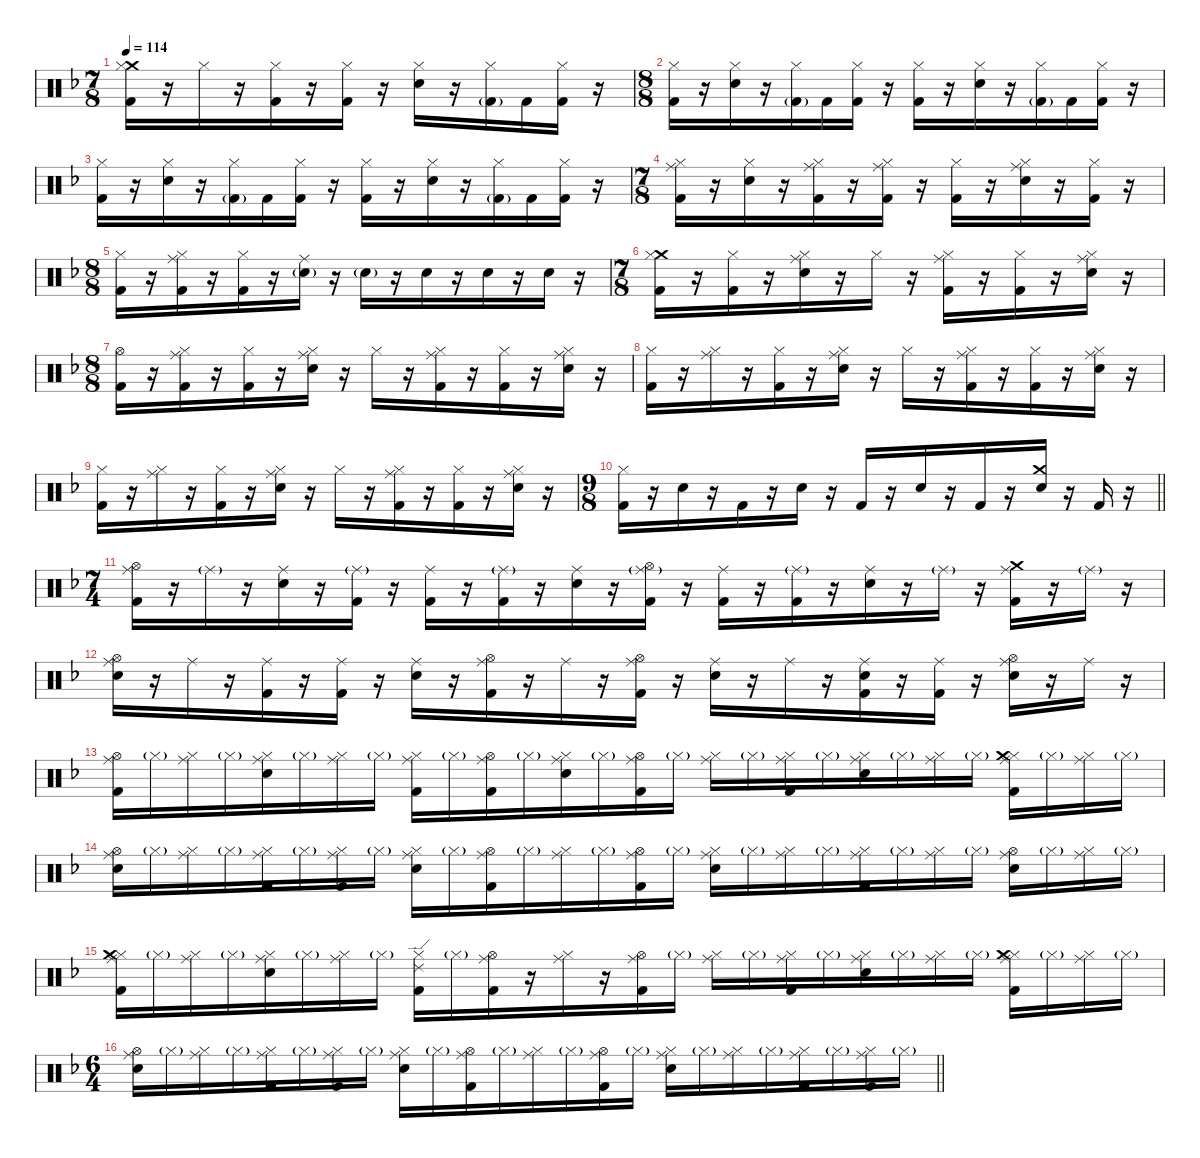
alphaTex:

\defaultSystemsLayout 4
\hideDynamics
\bracketExtendMode nobrackets
\singleTrackTrackNamePolicy hidden
\multiTrackTrackNamePolicy hidden
\firstSystemTrackNameMode fullname
\otherSystemsTrackNameOrientation horizontal
\track ("Drums" "drm.") {instrument percussion}
\staff {score}
\articulation defaults
\ts (7 8)
\beaming (8 4 4 4 4)
\tempo 114
\clef neutral
\ks dminor
("Crash medium (hit)"{acc forcenatural} "Hi-Hat (closed)"{acc forcenatural} "Kick (hit) 2"{acc forcenatural}).16{dy f beam Down} r.16{beam Down} "Hi-Hat (closed)"{acc forcenatural}.16{beam Down} r.16{beam Down} ("Hi-Hat (closed)"{acc forcenatural} "Kick (hit) 2"{acc forcenatural}).16{beam Down} r.16{beam Down} ("Hi-Hat (closed)"{acc forcenatural} "Kick (hit) 2"{acc forcenatural}).16{beam Down} r.16{beam Down} ("Hi-Hat (closed)"{acc forcenatural} "Snare (hit) 2"{acc forcenatural}).16{beam Down} r.16{beam Down} ("Hi-Hat (closed)"{acc forcenatural} "Kick (hit) 2"{g acc forcenatural}).16{beam Down} "Kick (hit) 2"{acc forcenatural}.16{beam Down} ("Hi-Hat (closed)"{acc forcenatural} "Kick (hit) 2"{acc forcenatural}).16{beam Down} r.16{beam Down} |
\ts (8 8)
\beaming (8 4 4 4 4)
("Hi-Hat (closed)"{acc forcenatural} "Kick (hit) 2"{acc forcenatural}).16{beam Down} r.16{beam Down} ("Hi-Hat (closed)"{acc forcenatural} "Snare (hit) 2"{acc forcenatural}).16{beam Down} r.16{beam Down} ("Hi-Hat (closed)"{acc forcenatural} "Kick (hit) 2"{g acc forcenatural}).16{beam Down} "Kick (hit) 2"{acc forcenatural}.16{beam Down} ("Hi-Hat (closed)"{acc forcenatural} "Kick (hit) 2"{acc forcenatural}).16{beam Down} r.16{beam Down} ("Hi-Hat (closed)"{acc forcenatural} "Kick (hit) 2"{acc forcenatural}).16{beam Down} r.16{beam Down} ("Hi-Hat (closed)"{acc forcenatural} "Snare (hit) 2"{acc forcenatural}).16{beam Down} r.16{beam Down} ("Hi-Hat (closed)"{acc forcenatural} "Kick (hit) 2"{g acc forcenatural}).16{beam Down} "Kick (hit) 2"{acc forcenatural}.16{beam Down} ("Hi-Hat (closed)"{acc forcenatural} "Kick (hit) 2"{acc forcenatural}).16{beam Down} r.16{beam Down} |
("Hi-Hat (closed)"{acc forcenatural} "Kick (hit) 2"{acc forcenatural}).16{beam Down} r.16{beam Down} ("Hi-Hat (closed)"{acc forcenatural} "Snare (hit) 2"{acc forcenatural}).16{beam Down} r.16{beam Down} ("Hi-Hat (closed)"{acc forcenatural} "Kick (hit) 2"{g acc forcenatural}).16{beam Down} "Kick (hit) 2"{acc forcenatural}.16{beam Down} ("Hi-Hat (closed)"{acc forcenatural} "Kick (hit) 2"{acc forcenatural}).16{beam Down} r.16{beam Down} ("Hi-Hat (closed)"{acc forcenatural} "Kick (hit) 2"{acc forcenatural}).16{beam Down} r.16{beam Down} ("Hi-Hat (closed)"{acc forcenatural} "Snare (hit) 2"{acc forcenatural}).16{beam Down} r.16{beam Down} ("Hi-Hat (closed)"{acc forcenatural} "Kick (hit) 2"{g acc forcenatural}).16{beam Down} "Kick (hit) 2"{acc forcenatural}.16{beam Down} ("Hi-Hat (closed)"{acc forcenatural} "Kick (hit) 2"{acc forcenatural}).16{beam Down} r.16{beam Down} |
\ts (7 8)
\beaming (8 4 4 4 4)
("Ride (middle)"{acc forcenatural} "Hi-Hat (closed)"{acc forcenatural} "Kick (hit) 2"{acc forcenatural}).16{beam Down} r.16{beam Down} ("Hi-Hat (closed)"{acc forcenatural} "Snare (hit) 2"{acc forcenatural}).16{beam Down} r.16{beam Down} ("Ride (middle)"{acc forcenatural} "Hi-Hat (closed)"{acc forcenatural} "Kick (hit) 2"{acc forcenatural}).16{beam Down} r.16{beam Down} ("Ride (middle)"{acc forcenatural} "Hi-Hat (closed)"{acc forcenatural} "Kick (hit) 2"{acc forcenatural}).16{beam Down} r.16{beam Down} ("Hi-Hat (closed)"{acc forcenatural} "Kick (hit) 2"{acc forcenatural}).16{beam Down} r.16{beam Down} ("Ride (middle)"{acc forcenatural} "Hi-Hat (closed)"{acc forcenatural} "Snare (hit) 2"{acc forcenatural}).16{beam Down} r.16{beam Down} ("Hi-Hat (closed)"{acc forcenatural} "Kick (hit) 2"{acc forcenatural}).16{beam Down} r.16{beam Down} |
\ts (8 8)
\beaming (8 4 4 4 4)
("Hi-Hat (closed)"{acc forcenatural} "Kick (hit) 2"{acc forcenatural}).16{beam Down} r.16{beam Down} ("Ride (middle)"{acc forcenatural} "Hi-Hat (closed)"{acc forcenatural} "Kick (hit) 2"{acc forcenatural}).16{beam Down} r.16{beam Down} ("Hi-Hat (closed)"{acc forcenatural} "Kick (hit) 2"{acc forcenatural}).16{beam Down} r.16{beam Down} ("Ride (middle)"{acc forcenatural} "Snare (hit) 2"{g acc forcenatural}).16{beam Down} r.16{beam Down} "Snare (hit) 2"{g acc forcenatural}.16{dy mf beam Down} r.16{beam Down} "Snare (hit) 2"{acc forcenatural}.16{dy f beam Down} r.16{beam Down} "Snare (hit) 2"{acc forcenatural}.16{beam Down} r.16{beam Down} "Snare (hit) 2"{acc forcenatural}.16{beam Down} r.16{beam Down} |
\ts (7 8)
\beaming (8 4 4 4 4)
("Crash medium (hit)"{acc forcenatural} "Hi-Hat (closed)"{acc forcenatural} "Kick (hit) 2"{acc forcenatural}).16{beam Down} r.16{beam Down} ("Hi-Hat (closed)"{acc forcenatural} "Kick (hit) 2"{acc forcenatural}).16{beam Down} r.16{beam Down} ("Ride (middle)"{acc forcenatural} "Hi-Hat (closed)"{acc forcenatural} "Snare (hit) 2"{acc forcenatural}).16{beam Down} r.16{beam Down} "Hi-Hat (closed)"{acc forcenatural}.16{beam Down} r.16{beam Down} ("Ride (middle)"{acc forcenatural} "Hi-Hat (closed)"{acc forcenatural} "Kick (hit) 2"{acc forcenatural}).16{beam Down} r.16{beam Down} ("Hi-Hat (closed)"{acc forcenatural} "Kick (hit) 2"{acc forcenatural}).16{beam Down} r.16{beam Down} ("Ride (middle)"{acc forcenatural} "Hi-Hat (closed)"{acc forcenatural} "Snare (hit) 2"{acc forcenatural}).16{beam Down} r.16{beam Down} |
\ts (8 8)
\beaming (8 4 4 4 4)
("Hi-Hat (open)"{acc forcenatural} "Kick (hit) 2"{acc forcenatural}).16{beam Down} r.16{beam Down} ("Ride (middle)"{acc forcenatural} "Hi-Hat (closed)"{acc forcenatural} "Kick (hit) 2"{acc forcenatural}).16{beam Down} r.16{beam Down} ("Hi-Hat (closed)"{acc forcenatural} "Kick (hit) 2"{acc forcenatural}).16{beam Down} r.16{beam Down} ("Ride (middle)"{acc forcenatural} "Hi-Hat (closed)"{acc forcenatural} "Snare (hit) 2"{acc forcenatural}).16{beam Down} r.16{beam Down} "Hi-Hat (closed)"{acc forcenatural}.16{beam Down} r.16{beam Down} ("Ride (middle)"{acc forcenatural} "Hi-Hat (closed)"{acc forcenatural} "Kick (hit) 2"{acc forcenatural}).16{beam Down} r.16{beam Down} ("Hi-Hat (closed)"{acc forcenatural} "Kick (hit) 2"{acc forcenatural}).16{beam Down} r.16{beam Down} ("Ride (middle)"{acc forcenatural} "Hi-Hat (closed)"{acc forcenatural} "Snare (hit) 2"{acc forcenatural}).16{beam Down} r.16{beam Down} |
("Hi-Hat (closed)"{acc forcenatural} "Kick (hit) 2"{acc forcenatural}).16{beam Down} r.16{beam Down} ("Ride (middle)"{acc forcenatural} "Hi-Hat (closed)"{acc forcenatural}).16{beam Down} r.16{beam Down} ("Hi-Hat (closed)"{acc forcenatural} "Kick (hit) 2"{acc forcenatural}).16{beam Down} r.16{beam Down} ("Ride (middle)"{acc forcenatural} "Hi-Hat (closed)"{acc forcenatural} "Snare (hit) 2"{acc forcenatural}).16{beam Down} r.16{beam Down} "Hi-Hat (closed)"{acc forcenatural}.16{beam Down} r.16{beam Down} ("Ride (middle)"{acc forcenatural} "Hi-Hat (closed)"{acc forcenatural} "Kick (hit) 2"{acc forcenatural}).16{beam Down} r.16{beam Down} ("Hi-Hat (closed)"{acc forcenatural} "Kick (hit) 2"{acc forcenatural}).16{beam Down} r.16{beam Down} ("Ride (middle)"{acc forcenatural} "Hi-Hat (closed)"{acc forcenatural} "Snare (hit) 2"{acc forcenatural}).16{beam Down} r.16{beam Down} |
("Hi-Hat (closed)"{acc forcenatural} "Kick (hit) 2"{acc forcenatural}).16{beam Down} r.16{beam Down} ("Ride (middle)"{acc forcenatural} "Hi-Hat (closed)"{acc forcenatural}).16{beam Down} r.16{beam Down} ("Hi-Hat (closed)"{acc forcenatural} "Kick (hit) 2"{acc forcenatural}).16{beam Down} r.16{beam Down} ("Ride (middle)"{acc forcenatural} "Hi-Hat (closed)"{acc forcenatural} "Snare (hit) 2"{acc forcenatural}).16{beam Down} r.16{beam Down} "Hi-Hat (closed)"{acc forcenatural}.16{beam Down} r.16{beam Down} ("Ride (middle)"{acc forcenatural} "Hi-Hat (closed)"{acc forcenatural} "Kick (hit) 2"{acc forcenatural}).16{beam Down} r.16{beam Down} ("Hi-Hat (closed)"{acc forcenatural} "Kick (hit) 2"{acc forcenatural}).16{beam Down} r.16{beam Down} ("Ride (middle)"{acc forcenatural} "Hi-Hat (closed)"{acc forcenatural} "Snare (hit) 2"{acc forcenatural}).16{beam Down} r.16{beam Down} |
\ts (9 8)
\beaming (8 4 4 4 4)
\barLineRight lightlight
("Hi-Hat (closed)"{acc forcenatural} "Kick (hit) 2"{acc forcenatural}).16{beam Down} r.16{beam Down} "Snare (hit) 2"{acc forcenatural}.16{beam Down} r.16{beam Down} "Kick (hit) 2"{acc forcenatural}.16{beam Down} r.16{beam Down} "Snare (hit) 2"{acc forcenatural}.16{beam Down} r.16{beam Down} "Kick (hit) 2"{acc forcenatural}.16{beam Up} r.16{beam Up} "Snare (hit) 2"{acc forcenatural}.16{beam Up} r.16{beam Up} "Kick (hit) 2"{acc forcenatural}.16{beam Up} r.16{beam Up} ("Crash medium (hit)"{acc forcenatural} "Snare (hit) 2"{acc forcenatural}).16{beam Up} r.16{beam Up} "Kick (hit) 2"{acc forcenatural}.16{beam Up} r.16{beam Up} |
\ts (7 4)
\beaming (8 4 4 4 4)
("Ride (middle)"{acc forcenatural} "Hi-Hat (open)"{acc forcenatural} "Kick (hit) 2"{acc forcenatural}).16{beam Down} r.16{beam Down} "Ride (middle)"{g acc forcenatural}.16{dy mf beam Down} r.16{beam Down} ("Ride (middle)"{acc forcenatural} "Snare (hit) 2"{acc forcenatural}).16{dy f beam Down} r.16{beam Down} ("Ride (middle)"{g acc forcenatural} "Kick (hit) 2"{acc forcenatural}).16{beam Down} r.16{beam Down} ("Ride (middle)"{acc forcenatural} "Kick (hit) 2"{acc forcenatural}).16{beam Down} r.16{beam Down} ("Ride (middle)"{g acc forcenatural} "Kick (hit) 2"{acc forcenatural}).16{beam Down} r.16{beam Down} ("Ride (middle)"{acc forcenatural} "Snare (hit) 2"{acc forcenatural}).16{beam Down} r.16{beam Down} ("Ride (middle)"{g acc forcenatural} "Hi-Hat (open)"{acc forcenatural} "Kick (hit) 2"{acc forcenatural}).16{beam Down} r.16{beam Down} ("Ride (middle)"{acc forcenatural} "Kick (hit) 2"{acc forcenatural}).16{beam Down} r.16{beam Down} ("Ride (middle)"{g acc forcenatural} "Kick (hit) 2"{acc forcenatural}).16{beam Down} r.16{beam Down} ("Ride (middle)"{acc forcenatural} "Snare (hit) 2"{acc forcenatural}).16{beam Down} r.16{beam Down} "Ride (middle)"{g acc forcenatural}.16{dy mf beam Down} r.16{beam Down} ("Ride (middle)"{acc forcenatural} "Crash medium (hit)"{acc forcenatural} "Kick (hit) 2"{acc forcenatural}).16{dy f beam Down} r.16{beam Down} "Ride (middle)"{g acc forcenatural}.16{dy mf beam Down} r.16{beam Down} |
("Ride (middle)"{acc forcenatural} "Hi-Hat (open)"{acc forcenatural} "Snare (hit) 2"{acc forcenatural}).16{dy f beam Down} r.16{beam Down} "Ride (middle)"{acc forcenatural}.16{beam Down} r.16{beam Down} ("Ride (middle)"{acc forcenatural} "Kick (hit) 2"{acc forcenatural}).16{beam Down} r.16{beam Down} ("Ride (middle)"{acc forcenatural} "Kick (hit) 2"{acc forcenatural}).16{beam Down} r.16{beam Down} ("Ride (middle)"{acc forcenatural} "Snare (hit) 2"{acc forcenatural}).16{beam Down} r.16{beam Down} ("Ride (middle)"{acc forcenatural} "Hi-Hat (open)"{acc forcenatural} "Kick (hit) 2"{acc forcenatural}).16{beam Down} r.16{beam Down} "Ride (middle)"{acc forcenatural}.16{beam Down} r.16{beam Down} ("Ride (middle)"{acc forcenatural} "Hi-Hat (open)"{acc forcenatural} "Kick (hit) 2"{acc forcenatural}).16{beam Down} r.16{beam Down} ("Ride (middle)"{acc forcenatural} "Snare (hit) 2"{acc forcenatural}).16{beam Down} r.16{beam Down} "Ride (middle)"{acc forcenatural}.16{beam Down} r.16{beam Down} ("Ride (middle)"{acc forcenatural} "Snare (hit) 2"{acc forcenatural} "Kick (hit) 2"{acc forcenatural}).16{beam Down} r.16{beam Down} ("Ride (middle)"{acc forcenatural} "Kick (hit) 2"{acc forcenatural}).16{beam Down} r.16{beam Down} ("Ride (middle)"{acc forcenatural} "Hi-Hat (open)"{acc forcenatural} "Snare (hit) 2"{acc forcenatural}).16{beam Down} r.16{beam Down} "Ride (middle)"{acc forcenatural}.16{beam Down} r.16{beam Down} |
("Ride (middle)"{acc forcenatural} "Hi-Hat (open)"{acc forcenatural} "Kick (hit) 2"{acc forcenatural}).16{beam Down} "Hi-Hat (closed)"{g acc forcenatural}.16{dy mf beam Down} ("Ride (middle)"{acc forcenatural} "Hi-Hat (closed)"{acc forcenatural}).16{dy f beam Down} "Hi-Hat (closed)"{g acc forcenatural}.16{dy mf beam Down} ("Ride (middle)"{acc forcenatural} "Hi-Hat (closed)"{acc forcenatural} "Snare (hit) 2"{acc forcenatural}).16{dy f beam Down} "Hi-Hat (closed)"{g acc forcenatural}.16{dy mf beam Down} ("Ride (middle)"{acc forcenatural} "Hi-Hat (closed)"{acc forcenatural}).16{dy f beam Down} "Hi-Hat (closed)"{g acc forcenatural}.16{dy mf beam Down} ("Ride (middle)"{acc forcenatural} "Hi-Hat (closed)"{acc forcenatural} "Kick (hit) 2"{acc forcenatural}).16{dy f beam Down} "Hi-Hat (closed)"{g acc forcenatural}.16{dy mf beam Down} ("Ride (middle)"{acc forcenatural} "Hi-Hat (open)"{acc forcenatural} "Kick (hit) 2"{acc forcenatural}).16{dy f beam Down} "Hi-Hat (closed)"{g acc forcenatural}.16{dy mf beam Down} ("Ride (middle)"{acc forcenatural} "Hi-Hat (closed)"{acc forcenatural} "Snare (hit) 2"{acc forcenatural}).16{dy f beam Down} "Hi-Hat (closed)"{g acc forcenatural}.16{dy mf beam Down} ("Ride (middle)"{acc forcenatural} "Hi-Hat (open)"{acc forcenatural} "Kick (hit) 2"{acc forcenatural}).16{dy f beam Down} "Hi-Hat (closed)"{g acc forcenatural}.16{dy mf beam Down} ("Ride (middle)"{acc forcenatural} "Hi-Hat (closed)"{acc forcenatural}).16{dy f beam Down} "Hi-Hat (closed)"{g acc forcenatural}.16{dy mf beam Down} ("Ride (middle)"{acc forcenatural} "Hi-Hat (closed)"{acc forcenatural} "Kick (hit) 2"{acc forcenatural}).16{dy f beam Down} "Hi-Hat (closed)"{g acc forcenatural}.16{dy mf beam Down} ("Ride (middle)"{acc forcenatural} "Hi-Hat (closed)"{acc forcenatural} "Snare (hit) 2"{acc forcenatural}).16{dy f beam Down} "Hi-Hat (closed)"{g acc forcenatural}.16{dy mf beam Down} ("Ride (middle)"{acc forcenatural} "Hi-Hat (closed)"{acc forcenatural}).16{dy f beam Down} "Hi-Hat (closed)"{g acc forcenatural}.16{dy mf beam Down} ("Ride (middle)"{acc forcenatural} "Hi-Hat (closed)"{acc forcenatural} "Crash medium (hit)"{acc forcenatural} "Kick (hit) 2"{acc forcenatural}).16{dy f beam Down} "Hi-Hat (closed)"{g acc forcenatural}.16{dy mf beam Down} ("Ride (middle)"{acc forcenatural} "Hi-Hat (closed)"{acc forcenatural}).16{dy f beam Down} "Hi-Hat (closed)"{g acc forcenatural}.16{dy mf beam Down} |
("Ride (middle)"{acc forcenatural} "Hi-Hat (open)"{acc forcenatural} "Snare (hit) 2"{acc forcenatural}).16{dy f beam Down} "Hi-Hat (closed)"{g acc forcenatural}.16{dy mf beam Down} ("Ride (middle)"{acc forcenatural} "Hi-Hat (closed)"{acc forcenatural}).16{dy f beam Down} "Hi-Hat (closed)"{g acc forcenatural}.16{dy mf beam Down} ("Ride (middle)"{acc forcenatural} "Hi-Hat (closed)"{acc forcenatural} "Kick (hit) 2"{acc forcenatural}).16{dy f beam Down} "Hi-Hat (closed)"{g acc forcenatural}.16{dy mf beam Down} ("Ride (middle)"{acc forcenatural} "Hi-Hat (closed)"{acc forcenatural} "Kick (hit) 2"{acc forcenatural}).16{dy f beam Down} "Hi-Hat (closed)"{g acc forcenatural}.16{dy mf beam Down} ("Ride (middle)"{acc forcenatural} "Hi-Hat (closed)"{acc forcenatural} "Snare (hit) 2"{acc forcenatural}).16{dy f beam Down} "Hi-Hat (closed)"{g acc forcenatural}.16{dy mf beam Down} ("Ride (middle)"{acc forcenatural} "Hi-Hat (open)"{acc forcenatural} "Kick (hit) 2"{acc forcenatural}).16{dy f beam Down} "Hi-Hat (closed)"{g acc forcenatural}.16{dy mf beam Down} ("Ride (middle)"{acc forcenatural} "Hi-Hat (closed)"{acc forcenatural}).16{dy f beam Down} "Hi-Hat (closed)"{g acc forcenatural}.16{dy mf beam Down} ("Ride (middle)"{acc forcenatural} "Hi-Hat (open)"{acc forcenatural} "Kick (hit) 2"{acc forcenatural}).16{dy f beam Down} "Hi-Hat (closed)"{g acc forcenatural}.16{dy mf beam Down} ("Ride (middle)"{acc forcenatural} "Hi-Hat (closed)"{acc forcenatural} "Snare (hit) 2"{acc forcenatural}).16{dy f beam Down} "Hi-Hat (closed)"{g acc forcenatural}.16{dy mf beam Down} ("Ride (middle)"{acc forcenatural} "Hi-Hat (closed)"{acc forcenatural}).16{dy f beam Down} "Hi-Hat (closed)"{g acc forcenatural}.16{dy mf beam Down} ("Ride (middle)"{acc forcenatural} "Hi-Hat (closed)"{acc forcenatural} "Kick (hit) 2"{acc forcenatural}).16{dy f beam Down} "Hi-Hat (closed)"{g acc forcenatural}.16{dy mf beam Down} ("Ride (middle)"{acc forcenatural} "Hi-Hat (closed)"{acc forcenatural}).16{dy f beam Down} "Hi-Hat (closed)"{g acc forcenatural}.16{dy mf beam Down} ("Ride (middle)"{acc forcenatural} "Hi-Hat (open)"{acc forcenatural} "Snare (hit) 2"{acc forcenatural}).16{dy f beam Down} "Hi-Hat (closed)"{g acc forcenatural}.16{dy mf beam Down} ("Ride (middle)"{acc forcenatural} "Hi-Hat (closed)"{acc forcenatural}).16{dy f beam Down} "Hi-Hat (closed)"{g acc forcenatural}.16{dy mf beam Down} |
("Ride (middle)"{acc forcenatural} "Hi-Hat (closed)"{acc forcenatural} "Crash medium (hit)"{acc forcenatural} "Kick (hit) 2"{acc forcenatural}).16{dy f beam Down} "Hi-Hat (closed)"{g acc forcenatural}.16{dy mf beam Down} ("Ride (middle)"{acc forcenatural} "Hi-Hat (closed)"{acc forcenatural}).16{dy f beam Down} "Hi-Hat (closed)"{g acc forcenatural}.16{dy mf beam Down} ("Ride (middle)"{acc forcenatural} "Hi-Hat (closed)"{acc forcenatural} "Snare (hit) 2"{acc forcenatural}).16{dy f beam Down} "Hi-Hat (closed)"{g acc forcenatural}.16{dy mf beam Down} ("Ride (middle)"{acc forcenatural} "Hi-Hat (closed)"{acc forcenatural}).16{dy f beam Down} "Hi-Hat (closed)"{g acc forcenatural}.16{dy mf beam Down} ("Ride (edge) 2"{acc forcenatural} "Hi-Hat (closed)"{acc forcenatural} "Kick (hit) 2"{acc forcenatural}).16{dy f beam Down} "Hi-Hat (closed)"{g acc forcenatural}.16{dy mf beam Down} ("Ride (middle)"{acc forcenatural} "Hi-Hat (open)"{acc forcenatural} "Kick (hit) 2"{acc forcenatural}).16{dy f beam Down} r.16{beam Down} ("Ride (middle)"{acc forcenatural} "Hi-Hat (closed)"{acc forcenatural}).16{beam Down} r.16{beam Down} ("Ride (middle)"{acc forcenatural} "Hi-Hat (open)"{acc forcenatural} "Kick (hit) 2"{acc forcenatural}).16{beam Down} "Hi-Hat (closed)"{g acc forcenatural}.16{dy mf beam Down} ("Ride (middle)"{acc forcenatural} "Hi-Hat (closed)"{acc forcenatural}).16{dy f beam Down} "Hi-Hat (closed)"{g acc forcenatural}.16{dy mf beam Down} ("Ride (middle)"{acc forcenatural} "Hi-Hat (closed)"{acc forcenatural} "Kick (hit) 2"{acc forcenatural}).16{dy f beam Down} "Hi-Hat (closed)"{g acc forcenatural}.16{dy mf beam Down} ("Ride (middle)"{acc forcenatural} "Hi-Hat (closed)"{acc forcenatural} "Snare (hit) 2"{acc forcenatural}).16{dy f beam Down} "Hi-Hat (closed)"{g acc forcenatural}.16{dy mf beam Down} ("Ride (middle)"{acc forcenatural} "Hi-Hat (closed)"{acc forcenatural}).16{dy f beam Down} "Hi-Hat (closed)"{g acc forcenatural}.16{dy mf beam Down} ("Ride (middle)"{acc forcenatural} "Hi-Hat (closed)"{acc forcenatural} "Crash medium (hit)"{acc forcenatural} "Kick (hit) 2"{acc forcenatural}).16{dy f beam Down} "Hi-Hat (closed)"{g acc forcenatural}.16{dy mf beam Down} ("Ride (middle)"{acc forcenatural} "Hi-Hat (closed)"{acc forcenatural}).16{dy f beam Down} "Hi-Hat (closed)"{g acc forcenatural}.16{dy mf beam Down} |
\ts (6 4)
\beaming (8 4 4 4 4)
\barLineRight lightlight
("Ride (middle)"{acc forcenatural} "Hi-Hat (open)"{acc forcenatural} "Snare (hit) 2"{acc forcenatural}).16{dy f beam Down} "Hi-Hat (closed)"{g acc forcenatural}.16{dy mf beam Down} ("Ride (middle)"{acc forcenatural} "Hi-Hat (closed)"{acc forcenatural}).16{dy f beam Down} "Hi-Hat (closed)"{g acc forcenatural}.16{dy mf beam Down} ("Ride (middle)"{acc forcenatural} "Hi-Hat (closed)"{acc forcenatural} "Kick (hit) 2"{acc forcenatural}).16{dy f beam Down} "Hi-Hat (closed)"{g acc forcenatural}.16{dy mf beam Down} ("Ride (middle)"{acc forcenatural} "Hi-Hat (closed)"{acc forcenatural} "Kick (hit) 2"{acc forcenatural}).16{dy f beam Down} "Hi-Hat (closed)"{g acc forcenatural}.16{dy mf beam Down} ("Ride (middle)"{acc forcenatural} "Hi-Hat (closed)"{acc forcenatural} "Snare (hit) 2"{acc forcenatural}).16{dy f beam Down} "Hi-Hat (closed)"{g acc forcenatural}.16{dy mf beam Down} ("Ride (middle)"{acc forcenatural} "Hi-Hat (open)"{acc forcenatural} "Kick (hit) 2"{acc forcenatural}).16{dy f beam Down} "Hi-Hat (closed)"{g acc forcenatural}.16{dy mf beam Down} ("Ride (middle)"{acc forcenatural} "Hi-Hat (closed)"{acc forcenatural}).16{dy f beam Down} "Hi-Hat (closed)"{g acc forcenatural}.16{dy mf beam Down} ("Ride (middle)"{acc forcenatural} "Hi-Hat (open)"{acc forcenatural} "Kick (hit) 2"{acc forcenatural}).16{dy f beam Down} "Hi-Hat (closed)"{g acc forcenatural}.16{dy mf beam Down} ("Ride (middle)"{acc forcenatural} "Hi-Hat (closed)"{acc forcenatural} "Snare (hit) 2"{acc forcenatural}).16{dy f beam Down} "Hi-Hat (closed)"{g acc forcenatural}.16{dy mf beam Down} ("Ride (middle)"{acc forcenatural} "Hi-Hat (closed)"{acc forcenatural}).16{dy f beam Down} "Hi-Hat (closed)"{g acc forcenatural}.16{dy mf beam Down} ("Ride (middle)"{acc forcenatural} "Hi-Hat (closed)"{acc forcenatural} "Kick (hit) 2"{acc forcenatural}).16{dy f beam Down} "Hi-Hat (closed)"{g acc forcenatural}.16{dy mf beam Down} ("Ride (middle)"{acc forcenatural} "Hi-Hat (closed)"{acc forcenatural} "Kick (hit) 2"{acc forcenatural}).16{dy f beam Down} "Hi-Hat (closed)"{g acc forcenatural}.16{dy mf beam Down}
